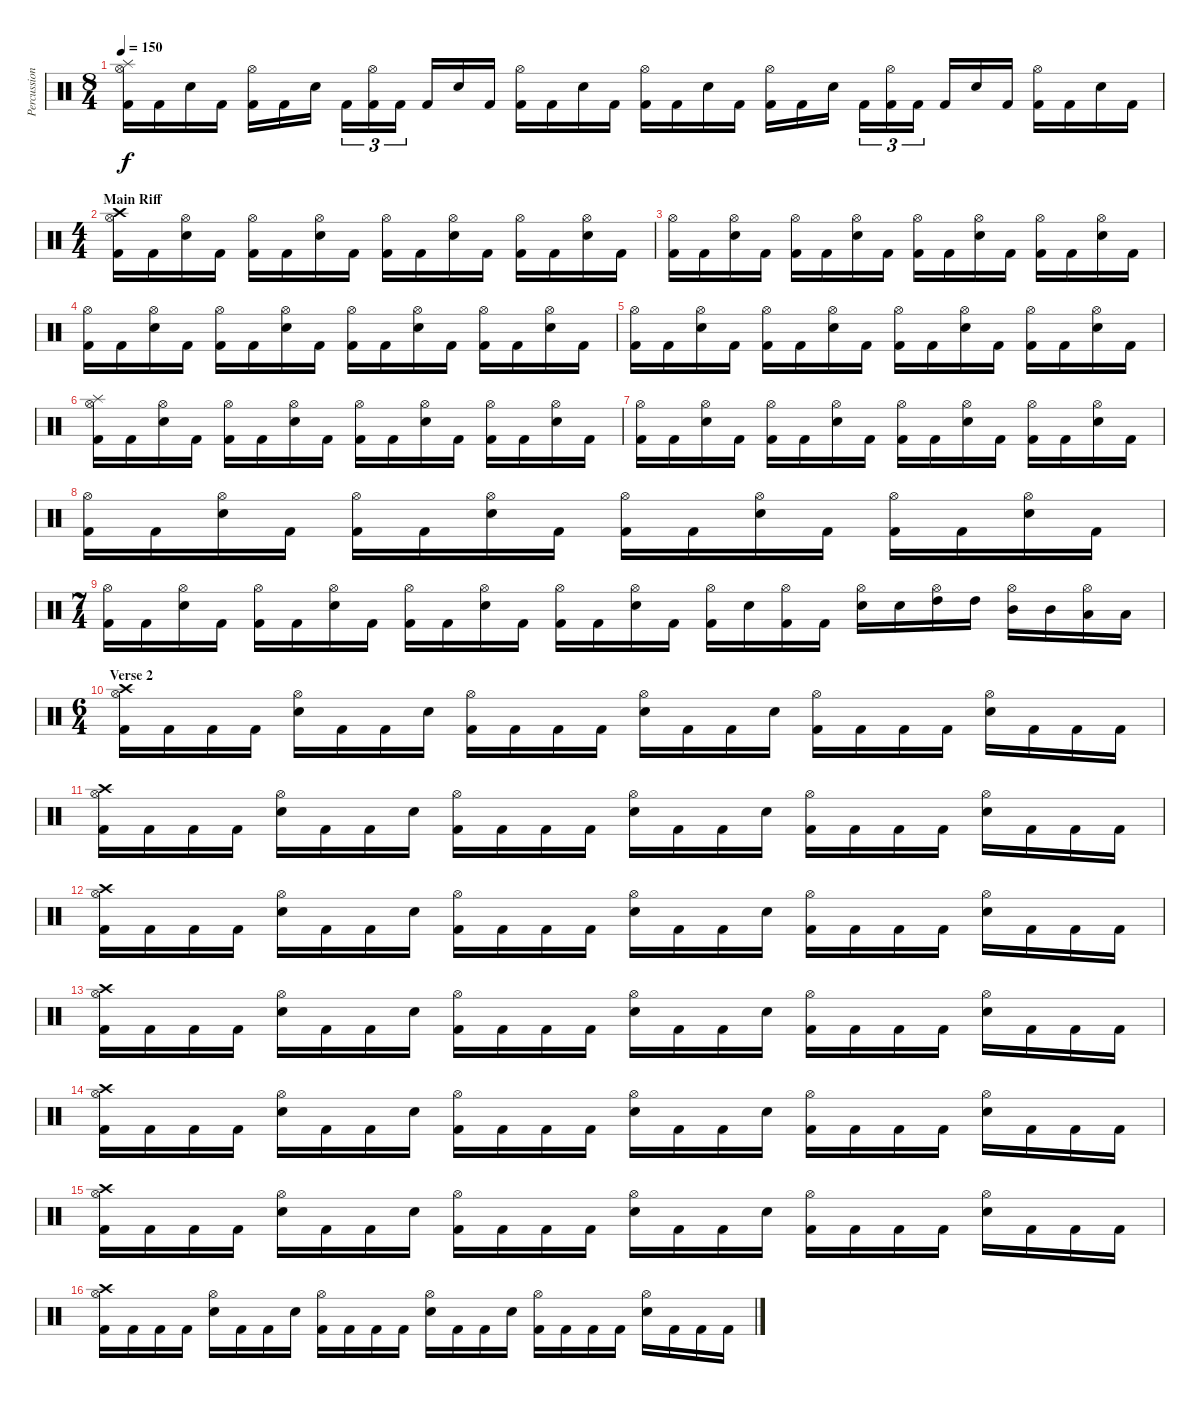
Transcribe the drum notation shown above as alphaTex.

\track ("Percussions" "Percussion") {instrument percussion}
\staff {score}
\articulation defaults
\ts (8 4)
\tempo 150
\clef neutral
\ks c
("Splash (hit)" "Hi-Hat (open)" "Kick (hit) 2").16{dy f} "Kick (hit) 2".16 "Electric Snare (hit)".16 "Kick (hit) 2".16 ("Hi-Hat (open)" "Kick (hit) 2").16 "Kick (hit) 2".16 "Electric Snare (hit)".16 "Kick (hit) 2".16{tu (3 2)} ("Hi-Hat (open)" "Kick (hit) 2").16{tu (3 2)} "Kick (hit) 2".16{tu (3 2)} "Kick (hit) 2".16 "Electric Snare (hit)".16 "Kick (hit) 2".16 ("Hi-Hat (open)" "Kick (hit) 2").16 "Kick (hit) 2".16 "Electric Snare (hit)".16 "Kick (hit) 2".16 ("Hi-Hat (open)" "Kick (hit) 2").16 "Kick (hit) 2".16 "Electric Snare (hit)".16 "Kick (hit) 2".16 ("Hi-Hat (open)" "Kick (hit) 2").16 "Kick (hit) 2".16 "Electric Snare (hit)".16 "Kick (hit) 2".16{tu (3 2)} ("Hi-Hat (open)" "Kick (hit) 2").16{tu (3 2)} "Kick (hit) 2".16{tu (3 2)} "Kick (hit) 2".16 "Electric Snare (hit)".16 "Kick (hit) 2".16 ("Hi-Hat (open)" "Kick (hit) 2").16 "Kick (hit) 2".16 "Electric Snare (hit)".16 "Kick (hit) 2".16 |
\ts (4 4)
\section ("" "Main Riff")
("Crash high (hit)" "Hi-Hat (open)" "Kick (hit) 2").16 "Kick (hit) 2".16 ("Hi-Hat (open)" "Electric Snare (hit)").16 "Kick (hit) 2".16 ("Hi-Hat (open)" "Kick (hit) 2").16 "Kick (hit) 2".16 ("Hi-Hat (open)" "Electric Snare (hit)").16 "Kick (hit) 2".16 ("Hi-Hat (open)" "Kick (hit) 2").16 "Kick (hit) 2".16 ("Hi-Hat (open)" "Electric Snare (hit)").16 "Kick (hit) 2".16 ("Hi-Hat (open)" "Kick (hit) 2").16 "Kick (hit) 2".16 ("Hi-Hat (open)" "Electric Snare (hit)").16 "Kick (hit) 2".16 |
("Hi-Hat (open)" "Kick (hit) 2").16 "Kick (hit) 2".16 ("Hi-Hat (open)" "Electric Snare (hit)").16 "Kick (hit) 2".16 ("Hi-Hat (open)" "Kick (hit) 2").16 "Kick (hit) 2".16 ("Hi-Hat (open)" "Electric Snare (hit)").16 "Kick (hit) 2".16 ("Hi-Hat (open)" "Kick (hit) 2").16 "Kick (hit) 2".16 ("Hi-Hat (open)" "Electric Snare (hit)").16 "Kick (hit) 2".16 ("Hi-Hat (open)" "Kick (hit) 2").16 "Kick (hit) 2".16 ("Hi-Hat (open)" "Electric Snare (hit)").16 "Kick (hit) 2".16 |
("Hi-Hat (open)" "Kick (hit) 2").16 "Kick (hit) 2".16 ("Hi-Hat (open)" "Electric Snare (hit)").16 "Kick (hit) 2".16 ("Hi-Hat (open)" "Kick (hit) 2").16 "Kick (hit) 2".16 ("Hi-Hat (open)" "Electric Snare (hit)").16 "Kick (hit) 2".16 ("Hi-Hat (open)" "Kick (hit) 2").16 "Kick (hit) 2".16 ("Hi-Hat (open)" "Electric Snare (hit)").16 "Kick (hit) 2".16 ("Hi-Hat (open)" "Kick (hit) 2").16 "Kick (hit) 2".16 ("Hi-Hat (open)" "Electric Snare (hit)").16 "Kick (hit) 2".16 |
("Hi-Hat (open)" "Kick (hit) 2").16 "Kick (hit) 2".16 ("Hi-Hat (open)" "Electric Snare (hit)").16 "Kick (hit) 2".16 ("Hi-Hat (open)" "Kick (hit) 2").16 "Kick (hit) 2".16 ("Hi-Hat (open)" "Electric Snare (hit)").16 "Kick (hit) 2".16 ("Hi-Hat (open)" "Kick (hit) 2").16 "Kick (hit) 2".16 ("Hi-Hat (open)" "Electric Snare (hit)").16 "Kick (hit) 2".16 ("Hi-Hat (open)" "Kick (hit) 2").16 "Kick (hit) 2".16 ("Hi-Hat (open)" "Electric Snare (hit)").16 "Kick (hit) 2".16 |
("Splash (hit)" "Hi-Hat (open)" "Kick (hit) 2").16 "Kick (hit) 2".16 ("Hi-Hat (open)" "Electric Snare (hit)").16 "Kick (hit) 2".16 ("Hi-Hat (open)" "Kick (hit) 2").16 "Kick (hit) 2".16 ("Hi-Hat (open)" "Electric Snare (hit)").16 "Kick (hit) 2".16 ("Hi-Hat (open)" "Kick (hit) 2").16 "Kick (hit) 2".16 ("Hi-Hat (open)" "Electric Snare (hit)").16 "Kick (hit) 2".16 ("Hi-Hat (open)" "Kick (hit) 2").16 "Kick (hit) 2".16 ("Hi-Hat (open)" "Electric Snare (hit)").16 "Kick (hit) 2".16 |
("Hi-Hat (open)" "Kick (hit) 2").16 "Kick (hit) 2".16 ("Hi-Hat (open)" "Electric Snare (hit)").16 "Kick (hit) 2".16 ("Hi-Hat (open)" "Kick (hit) 2").16 "Kick (hit) 2".16 ("Hi-Hat (open)" "Electric Snare (hit)").16 "Kick (hit) 2".16 ("Hi-Hat (open)" "Kick (hit) 2").16 "Kick (hit) 2".16 ("Hi-Hat (open)" "Electric Snare (hit)").16 "Kick (hit) 2".16 ("Hi-Hat (open)" "Kick (hit) 2").16 "Kick (hit) 2".16 ("Hi-Hat (open)" "Electric Snare (hit)").16 "Kick (hit) 2".16 |
("Hi-Hat (open)" "Kick (hit) 2").16 "Kick (hit) 2".16 ("Hi-Hat (open)" "Electric Snare (hit)").16 "Kick (hit) 2".16 ("Hi-Hat (open)" "Kick (hit) 2").16 "Kick (hit) 2".16 ("Hi-Hat (open)" "Electric Snare (hit)").16 "Kick (hit) 2".16 ("Hi-Hat (open)" "Kick (hit) 2").16 "Kick (hit) 2".16 ("Hi-Hat (open)" "Electric Snare (hit)").16 "Kick (hit) 2".16 ("Hi-Hat (open)" "Kick (hit) 2").16 "Kick (hit) 2".16 ("Hi-Hat (open)" "Electric Snare (hit)").16 "Kick (hit) 2".16 |
\ts (7 4)
("Hi-Hat (open)" "Kick (hit) 2").16 "Kick (hit) 2".16 ("Hi-Hat (open)" "Electric Snare (hit)").16 "Kick (hit) 2".16 ("Hi-Hat (open)" "Kick (hit) 2").16 "Kick (hit) 2".16 ("Hi-Hat (open)" "Electric Snare (hit)").16 "Kick (hit) 2".16 ("Hi-Hat (open)" "Kick (hit) 2").16 "Kick (hit) 2".16 ("Hi-Hat (open)" "Electric Snare (hit)").16 "Kick (hit) 2".16 ("Hi-Hat (open)" "Kick (hit) 2").16 "Kick (hit) 2".16 ("Hi-Hat (open)" "Electric Snare (hit)").16 "Kick (hit) 2".16 ("Hi-Hat (open)" "Kick (hit) 2").16 "Electric Snare (hit)".16 ("Hi-Hat (open)" "Kick (hit) 2").16 "Kick (hit) 2".16 ("Hi-Hat (open)" "Electric Snare (hit)").16 "Electric Snare (hit)".16 ("Hi-Hat (open)" "High Tom (hit)").16 "High Tom (hit)".16 ("Hi-Hat (open)" "Mid Tom (hit)").16 "Mid Tom (hit)".16 ("Hi-Hat (open)" "Low Tom (hit)").16 "Low Tom (hit)".16 |
\ts (6 4)
\section ("" "Verse 2")
("Crash high (hit)" "Hi-Hat (open)" "Kick (hit) 2").16 "Kick (hit) 2".16 "Kick (hit) 2".16 "Kick (hit) 2".16 ("Hi-Hat (open)" "Electric Snare (hit)").16 "Kick (hit) 2".16 "Kick (hit) 2".16 "Electric Snare (hit)".16 ("Hi-Hat (open)" "Kick (hit) 2").16 "Kick (hit) 2".16 "Kick (hit) 2".16 "Kick (hit) 2".16 ("Hi-Hat (open)" "Electric Snare (hit)").16 "Kick (hit) 2".16 "Kick (hit) 2".16 "Electric Snare (hit)".16 ("Hi-Hat (open)" "Kick (hit) 2").16 "Kick (hit) 2".16 "Kick (hit) 2".16 "Kick (hit) 2".16 ("Hi-Hat (open)" "Electric Snare (hit)").16 "Kick (hit) 2".16 "Kick (hit) 2".16 "Kick (hit) 2".16 |
("Crash high (hit)" "Hi-Hat (open)" "Kick (hit) 2").16 "Kick (hit) 2".16 "Kick (hit) 2".16 "Kick (hit) 2".16 ("Hi-Hat (open)" "Electric Snare (hit)").16 "Kick (hit) 2".16 "Kick (hit) 2".16 "Electric Snare (hit)".16 ("Hi-Hat (open)" "Kick (hit) 2").16 "Kick (hit) 2".16 "Kick (hit) 2".16 "Kick (hit) 2".16 ("Hi-Hat (open)" "Electric Snare (hit)").16 "Kick (hit) 2".16 "Kick (hit) 2".16 "Electric Snare (hit)".16 ("Hi-Hat (open)" "Kick (hit) 2").16 "Kick (hit) 2".16 "Kick (hit) 2".16 "Kick (hit) 2".16 ("Hi-Hat (open)" "Electric Snare (hit)").16 "Kick (hit) 2".16 "Kick (hit) 2".16 "Kick (hit) 2".16 |
("Crash high (hit)" "Hi-Hat (open)" "Kick (hit) 2").16 "Kick (hit) 2".16 "Kick (hit) 2".16 "Kick (hit) 2".16 ("Hi-Hat (open)" "Electric Snare (hit)").16 "Kick (hit) 2".16 "Kick (hit) 2".16 "Electric Snare (hit)".16 ("Hi-Hat (open)" "Kick (hit) 2").16 "Kick (hit) 2".16 "Kick (hit) 2".16 "Kick (hit) 2".16 ("Hi-Hat (open)" "Electric Snare (hit)").16 "Kick (hit) 2".16 "Kick (hit) 2".16 "Electric Snare (hit)".16 ("Hi-Hat (open)" "Kick (hit) 2").16 "Kick (hit) 2".16 "Kick (hit) 2".16 "Kick (hit) 2".16 ("Hi-Hat (open)" "Electric Snare (hit)").16 "Kick (hit) 2".16 "Kick (hit) 2".16 "Kick (hit) 2".16 |
("Crash high (hit)" "Hi-Hat (open)" "Kick (hit) 2").16 "Kick (hit) 2".16 "Kick (hit) 2".16 "Kick (hit) 2".16 ("Hi-Hat (open)" "Electric Snare (hit)").16 "Kick (hit) 2".16 "Kick (hit) 2".16 "Electric Snare (hit)".16 ("Hi-Hat (open)" "Kick (hit) 2").16 "Kick (hit) 2".16 "Kick (hit) 2".16 "Kick (hit) 2".16 ("Hi-Hat (open)" "Electric Snare (hit)").16 "Kick (hit) 2".16 "Kick (hit) 2".16 "Electric Snare (hit)".16 ("Hi-Hat (open)" "Kick (hit) 2").16 "Kick (hit) 2".16 "Kick (hit) 2".16 "Kick (hit) 2".16 ("Hi-Hat (open)" "Electric Snare (hit)").16 "Kick (hit) 2".16 "Kick (hit) 2".16 "Kick (hit) 2".16 |
("Crash high (hit)" "Hi-Hat (open)" "Kick (hit) 2").16 "Kick (hit) 2".16 "Kick (hit) 2".16 "Kick (hit) 2".16 ("Hi-Hat (open)" "Electric Snare (hit)").16 "Kick (hit) 2".16 "Kick (hit) 2".16 "Electric Snare (hit)".16 ("Hi-Hat (open)" "Kick (hit) 2").16 "Kick (hit) 2".16 "Kick (hit) 2".16 "Kick (hit) 2".16 ("Hi-Hat (open)" "Electric Snare (hit)").16 "Kick (hit) 2".16 "Kick (hit) 2".16 "Electric Snare (hit)".16 ("Hi-Hat (open)" "Kick (hit) 2").16 "Kick (hit) 2".16 "Kick (hit) 2".16 "Kick (hit) 2".16 ("Hi-Hat (open)" "Electric Snare (hit)").16 "Kick (hit) 2".16 "Kick (hit) 2".16 "Kick (hit) 2".16 |
("Crash high (hit)" "Hi-Hat (open)" "Kick (hit) 2").16 "Kick (hit) 2".16 "Kick (hit) 2".16 "Kick (hit) 2".16 ("Hi-Hat (open)" "Electric Snare (hit)").16 "Kick (hit) 2".16 "Kick (hit) 2".16 "Electric Snare (hit)".16 ("Hi-Hat (open)" "Kick (hit) 2").16 "Kick (hit) 2".16 "Kick (hit) 2".16 "Kick (hit) 2".16 ("Hi-Hat (open)" "Electric Snare (hit)").16 "Kick (hit) 2".16 "Kick (hit) 2".16 "Electric Snare (hit)".16 ("Hi-Hat (open)" "Kick (hit) 2").16 "Kick (hit) 2".16 "Kick (hit) 2".16 "Kick (hit) 2".16 ("Hi-Hat (open)" "Electric Snare (hit)").16 "Kick (hit) 2".16 "Kick (hit) 2".16 "Kick (hit) 2".16 |
("Crash high (hit)" "Hi-Hat (open)" "Kick (hit) 2").16 "Kick (hit) 2".16 "Kick (hit) 2".16 "Kick (hit) 2".16 ("Hi-Hat (open)" "Electric Snare (hit)").16 "Kick (hit) 2".16 "Kick (hit) 2".16 "Electric Snare (hit)".16 ("Hi-Hat (open)" "Kick (hit) 2").16 "Kick (hit) 2".16 "Kick (hit) 2".16 "Kick (hit) 2".16 ("Hi-Hat (open)" "Electric Snare (hit)").16 "Kick (hit) 2".16 "Kick (hit) 2".16 "Electric Snare (hit)".16 ("Hi-Hat (open)" "Kick (hit) 2").16 "Kick (hit) 2".16 "Kick (hit) 2".16 "Kick (hit) 2".16 ("Hi-Hat (open)" "Electric Snare (hit)").16 "Kick (hit) 2".16 "Kick (hit) 2".16 "Kick (hit) 2".16
